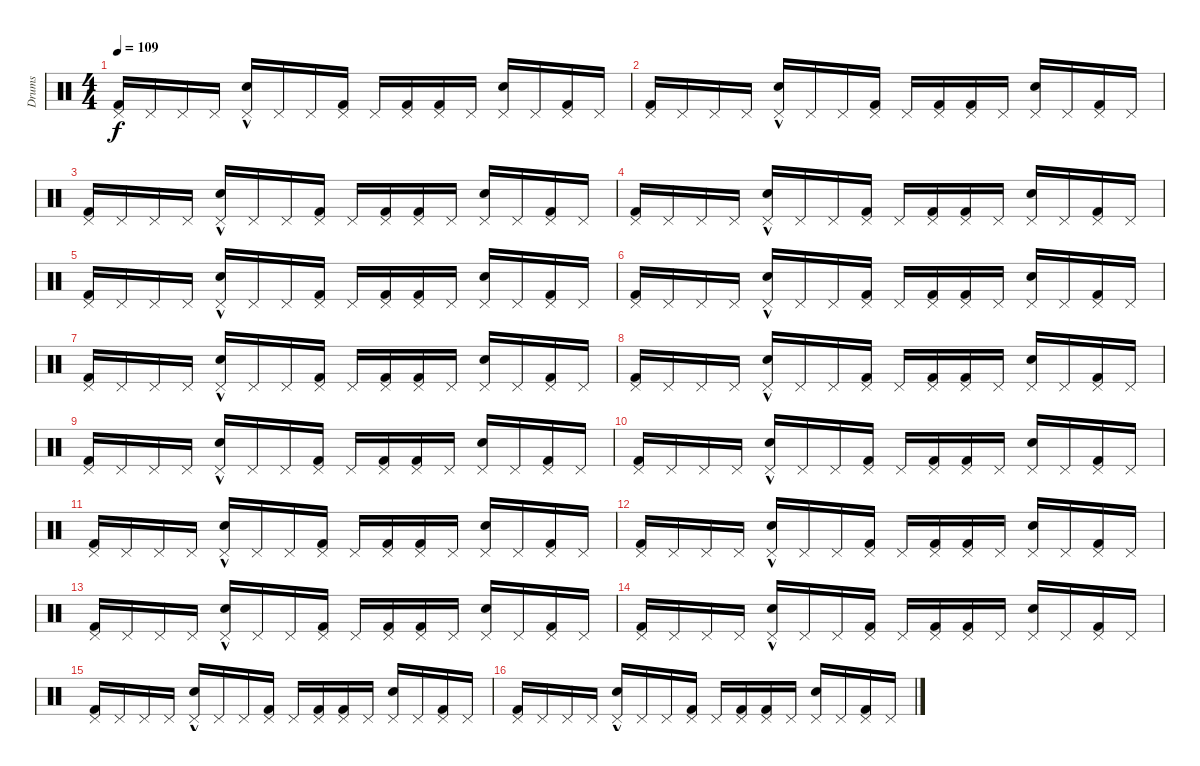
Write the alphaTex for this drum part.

\track ("Drums" "Drums") {instrument percussion}
\staff {score}
\articulation defaults
\ts (4 4)
\tempo 109
\clef neutral
\ks c
("Pedal Hi-Hat (hit)" "Kick (hit) 2").16{dy f} "Pedal Hi-Hat (hit)".16 "Pedal Hi-Hat (hit)".16 "Pedal Hi-Hat (hit)".16 ("Pedal Hi-Hat (hit)" "Snare (hit) 2"{hac}).16 "Pedal Hi-Hat (hit)".16 "Pedal Hi-Hat (hit)".16 ("Pedal Hi-Hat (hit)" "Kick (hit) 2").16 "Pedal Hi-Hat (hit)".16 ("Pedal Hi-Hat (hit)" "Kick (hit) 2").16 ("Pedal Hi-Hat (hit)" "Kick (hit) 2").16 "Pedal Hi-Hat (hit)".16 ("Pedal Hi-Hat (hit)" "Snare (hit) 2").16 "Pedal Hi-Hat (hit)".16 ("Pedal Hi-Hat (hit)" "Kick (hit) 2").16 "Pedal Hi-Hat (hit)".16 |
("Pedal Hi-Hat (hit)" "Kick (hit) 2").16 "Pedal Hi-Hat (hit)".16 "Pedal Hi-Hat (hit)".16 "Pedal Hi-Hat (hit)".16 ("Pedal Hi-Hat (hit)" "Snare (hit) 2"{hac}).16 "Pedal Hi-Hat (hit)".16 "Pedal Hi-Hat (hit)".16 ("Pedal Hi-Hat (hit)" "Kick (hit) 2").16 "Pedal Hi-Hat (hit)".16 ("Pedal Hi-Hat (hit)" "Kick (hit) 2").16 ("Pedal Hi-Hat (hit)" "Kick (hit) 2").16 "Pedal Hi-Hat (hit)".16 ("Pedal Hi-Hat (hit)" "Snare (hit) 2").16 "Pedal Hi-Hat (hit)".16 ("Pedal Hi-Hat (hit)" "Kick (hit) 2").16 "Pedal Hi-Hat (hit)".16 |
("Pedal Hi-Hat (hit)" "Kick (hit) 2").16 "Pedal Hi-Hat (hit)".16 "Pedal Hi-Hat (hit)".16 "Pedal Hi-Hat (hit)".16 ("Pedal Hi-Hat (hit)" "Snare (hit) 2"{hac}).16 "Pedal Hi-Hat (hit)".16 "Pedal Hi-Hat (hit)".16 ("Pedal Hi-Hat (hit)" "Kick (hit) 2").16 "Pedal Hi-Hat (hit)".16 ("Pedal Hi-Hat (hit)" "Kick (hit) 2").16 ("Pedal Hi-Hat (hit)" "Kick (hit) 2").16 "Pedal Hi-Hat (hit)".16 ("Pedal Hi-Hat (hit)" "Snare (hit) 2").16 "Pedal Hi-Hat (hit)".16 ("Pedal Hi-Hat (hit)" "Kick (hit) 2").16 "Pedal Hi-Hat (hit)".16 |
("Pedal Hi-Hat (hit)" "Kick (hit) 2").16 "Pedal Hi-Hat (hit)".16 "Pedal Hi-Hat (hit)".16 "Pedal Hi-Hat (hit)".16 ("Pedal Hi-Hat (hit)" "Snare (hit) 2"{hac}).16 "Pedal Hi-Hat (hit)".16 "Pedal Hi-Hat (hit)".16 ("Pedal Hi-Hat (hit)" "Kick (hit) 2").16 "Pedal Hi-Hat (hit)".16 ("Pedal Hi-Hat (hit)" "Kick (hit) 2").16 ("Pedal Hi-Hat (hit)" "Kick (hit) 2").16 "Pedal Hi-Hat (hit)".16 ("Pedal Hi-Hat (hit)" "Snare (hit) 2").16 "Pedal Hi-Hat (hit)".16 ("Pedal Hi-Hat (hit)" "Kick (hit) 2").16 "Pedal Hi-Hat (hit)".16 |
("Pedal Hi-Hat (hit)" "Kick (hit) 2").16 "Pedal Hi-Hat (hit)".16 "Pedal Hi-Hat (hit)".16 "Pedal Hi-Hat (hit)".16 ("Pedal Hi-Hat (hit)" "Snare (hit) 2"{hac}).16 "Pedal Hi-Hat (hit)".16 "Pedal Hi-Hat (hit)".16 ("Pedal Hi-Hat (hit)" "Kick (hit) 2").16 "Pedal Hi-Hat (hit)".16 ("Pedal Hi-Hat (hit)" "Kick (hit) 2").16 ("Pedal Hi-Hat (hit)" "Kick (hit) 2").16 "Pedal Hi-Hat (hit)".16 ("Pedal Hi-Hat (hit)" "Snare (hit) 2").16 "Pedal Hi-Hat (hit)".16 ("Pedal Hi-Hat (hit)" "Kick (hit) 2").16 "Pedal Hi-Hat (hit)".16 |
("Pedal Hi-Hat (hit)" "Kick (hit) 2").16 "Pedal Hi-Hat (hit)".16 "Pedal Hi-Hat (hit)".16 "Pedal Hi-Hat (hit)".16 ("Pedal Hi-Hat (hit)" "Snare (hit) 2"{hac}).16 "Pedal Hi-Hat (hit)".16 "Pedal Hi-Hat (hit)".16 ("Pedal Hi-Hat (hit)" "Kick (hit) 2").16 "Pedal Hi-Hat (hit)".16 ("Pedal Hi-Hat (hit)" "Kick (hit) 2").16 ("Pedal Hi-Hat (hit)" "Kick (hit) 2").16 "Pedal Hi-Hat (hit)".16 ("Pedal Hi-Hat (hit)" "Snare (hit) 2").16 "Pedal Hi-Hat (hit)".16 ("Pedal Hi-Hat (hit)" "Kick (hit) 2").16 "Pedal Hi-Hat (hit)".16 |
("Pedal Hi-Hat (hit)" "Kick (hit) 2").16 "Pedal Hi-Hat (hit)".16 "Pedal Hi-Hat (hit)".16 "Pedal Hi-Hat (hit)".16 ("Pedal Hi-Hat (hit)" "Snare (hit) 2"{hac}).16 "Pedal Hi-Hat (hit)".16 "Pedal Hi-Hat (hit)".16 ("Pedal Hi-Hat (hit)" "Kick (hit) 2").16 "Pedal Hi-Hat (hit)".16 ("Pedal Hi-Hat (hit)" "Kick (hit) 2").16 ("Pedal Hi-Hat (hit)" "Kick (hit) 2").16 "Pedal Hi-Hat (hit)".16 ("Pedal Hi-Hat (hit)" "Snare (hit) 2").16 "Pedal Hi-Hat (hit)".16 ("Pedal Hi-Hat (hit)" "Kick (hit) 2").16 "Pedal Hi-Hat (hit)".16 |
("Pedal Hi-Hat (hit)" "Kick (hit) 2").16 "Pedal Hi-Hat (hit)".16 "Pedal Hi-Hat (hit)".16 "Pedal Hi-Hat (hit)".16 ("Pedal Hi-Hat (hit)" "Snare (hit) 2"{hac}).16 "Pedal Hi-Hat (hit)".16 "Pedal Hi-Hat (hit)".16 ("Pedal Hi-Hat (hit)" "Kick (hit) 2").16 "Pedal Hi-Hat (hit)".16 ("Pedal Hi-Hat (hit)" "Kick (hit) 2").16 ("Pedal Hi-Hat (hit)" "Kick (hit) 2").16 "Pedal Hi-Hat (hit)".16 ("Pedal Hi-Hat (hit)" "Snare (hit) 2").16 "Pedal Hi-Hat (hit)".16 ("Pedal Hi-Hat (hit)" "Kick (hit) 2").16 "Pedal Hi-Hat (hit)".16 |
("Pedal Hi-Hat (hit)" "Kick (hit) 2").16 "Pedal Hi-Hat (hit)".16 "Pedal Hi-Hat (hit)".16 "Pedal Hi-Hat (hit)".16 ("Pedal Hi-Hat (hit)" "Snare (hit) 2"{hac}).16 "Pedal Hi-Hat (hit)".16 "Pedal Hi-Hat (hit)".16 ("Pedal Hi-Hat (hit)" "Kick (hit) 2").16 "Pedal Hi-Hat (hit)".16 ("Pedal Hi-Hat (hit)" "Kick (hit) 2").16 ("Pedal Hi-Hat (hit)" "Kick (hit) 2").16 "Pedal Hi-Hat (hit)".16 ("Pedal Hi-Hat (hit)" "Snare (hit) 2").16 "Pedal Hi-Hat (hit)".16 ("Pedal Hi-Hat (hit)" "Kick (hit) 2").16 "Pedal Hi-Hat (hit)".16 |
("Pedal Hi-Hat (hit)" "Kick (hit) 2").16 "Pedal Hi-Hat (hit)".16 "Pedal Hi-Hat (hit)".16 "Pedal Hi-Hat (hit)".16 ("Pedal Hi-Hat (hit)" "Snare (hit) 2"{hac}).16 "Pedal Hi-Hat (hit)".16 "Pedal Hi-Hat (hit)".16 ("Pedal Hi-Hat (hit)" "Kick (hit) 2").16 "Pedal Hi-Hat (hit)".16 ("Pedal Hi-Hat (hit)" "Kick (hit) 2").16 ("Pedal Hi-Hat (hit)" "Kick (hit) 2").16 "Pedal Hi-Hat (hit)".16 ("Pedal Hi-Hat (hit)" "Snare (hit) 2").16 "Pedal Hi-Hat (hit)".16 ("Pedal Hi-Hat (hit)" "Kick (hit) 2").16 "Pedal Hi-Hat (hit)".16 |
("Pedal Hi-Hat (hit)" "Kick (hit) 2").16 "Pedal Hi-Hat (hit)".16 "Pedal Hi-Hat (hit)".16 "Pedal Hi-Hat (hit)".16 ("Pedal Hi-Hat (hit)" "Snare (hit) 2"{hac}).16 "Pedal Hi-Hat (hit)".16 "Pedal Hi-Hat (hit)".16 ("Pedal Hi-Hat (hit)" "Kick (hit) 2").16 "Pedal Hi-Hat (hit)".16 ("Pedal Hi-Hat (hit)" "Kick (hit) 2").16 ("Pedal Hi-Hat (hit)" "Kick (hit) 2").16 "Pedal Hi-Hat (hit)".16 ("Pedal Hi-Hat (hit)" "Snare (hit) 2").16 "Pedal Hi-Hat (hit)".16 ("Pedal Hi-Hat (hit)" "Kick (hit) 2").16 "Pedal Hi-Hat (hit)".16 |
("Pedal Hi-Hat (hit)" "Kick (hit) 2").16 "Pedal Hi-Hat (hit)".16 "Pedal Hi-Hat (hit)".16 "Pedal Hi-Hat (hit)".16 ("Pedal Hi-Hat (hit)" "Snare (hit) 2"{hac}).16 "Pedal Hi-Hat (hit)".16 "Pedal Hi-Hat (hit)".16 ("Pedal Hi-Hat (hit)" "Kick (hit) 2").16 "Pedal Hi-Hat (hit)".16 ("Pedal Hi-Hat (hit)" "Kick (hit) 2").16 ("Pedal Hi-Hat (hit)" "Kick (hit) 2").16 "Pedal Hi-Hat (hit)".16 ("Pedal Hi-Hat (hit)" "Snare (hit) 2").16 "Pedal Hi-Hat (hit)".16 ("Pedal Hi-Hat (hit)" "Kick (hit) 2").16 "Pedal Hi-Hat (hit)".16 |
("Pedal Hi-Hat (hit)" "Kick (hit) 2").16 "Pedal Hi-Hat (hit)".16 "Pedal Hi-Hat (hit)".16 "Pedal Hi-Hat (hit)".16 ("Pedal Hi-Hat (hit)" "Snare (hit) 2"{hac}).16 "Pedal Hi-Hat (hit)".16 "Pedal Hi-Hat (hit)".16 ("Pedal Hi-Hat (hit)" "Kick (hit) 2").16 "Pedal Hi-Hat (hit)".16 ("Pedal Hi-Hat (hit)" "Kick (hit) 2").16 ("Pedal Hi-Hat (hit)" "Kick (hit) 2").16 "Pedal Hi-Hat (hit)".16 ("Pedal Hi-Hat (hit)" "Snare (hit) 2").16 "Pedal Hi-Hat (hit)".16 ("Pedal Hi-Hat (hit)" "Kick (hit) 2").16 "Pedal Hi-Hat (hit)".16 |
("Pedal Hi-Hat (hit)" "Kick (hit) 2").16 "Pedal Hi-Hat (hit)".16 "Pedal Hi-Hat (hit)".16 "Pedal Hi-Hat (hit)".16 ("Pedal Hi-Hat (hit)" "Snare (hit) 2"{hac}).16 "Pedal Hi-Hat (hit)".16 "Pedal Hi-Hat (hit)".16 ("Pedal Hi-Hat (hit)" "Kick (hit) 2").16 "Pedal Hi-Hat (hit)".16 ("Pedal Hi-Hat (hit)" "Kick (hit) 2").16 ("Pedal Hi-Hat (hit)" "Kick (hit) 2").16 "Pedal Hi-Hat (hit)".16 ("Pedal Hi-Hat (hit)" "Snare (hit) 2").16 "Pedal Hi-Hat (hit)".16 ("Pedal Hi-Hat (hit)" "Kick (hit) 2").16 "Pedal Hi-Hat (hit)".16 |
("Pedal Hi-Hat (hit)" "Kick (hit) 2").16 "Pedal Hi-Hat (hit)".16 "Pedal Hi-Hat (hit)".16 "Pedal Hi-Hat (hit)".16 ("Pedal Hi-Hat (hit)" "Snare (hit) 2"{hac}).16 "Pedal Hi-Hat (hit)".16 "Pedal Hi-Hat (hit)".16 ("Pedal Hi-Hat (hit)" "Kick (hit) 2").16 "Pedal Hi-Hat (hit)".16 ("Pedal Hi-Hat (hit)" "Kick (hit) 2").16 ("Pedal Hi-Hat (hit)" "Kick (hit) 2").16 "Pedal Hi-Hat (hit)".16 ("Pedal Hi-Hat (hit)" "Snare (hit) 2").16 "Pedal Hi-Hat (hit)".16 ("Pedal Hi-Hat (hit)" "Kick (hit) 2").16 "Pedal Hi-Hat (hit)".16 |
("Pedal Hi-Hat (hit)" "Kick (hit) 2").16 "Pedal Hi-Hat (hit)".16 "Pedal Hi-Hat (hit)".16 "Pedal Hi-Hat (hit)".16 ("Pedal Hi-Hat (hit)" "Snare (hit) 2"{hac}).16 "Pedal Hi-Hat (hit)".16 "Pedal Hi-Hat (hit)".16 ("Pedal Hi-Hat (hit)" "Kick (hit) 2").16 "Pedal Hi-Hat (hit)".16 ("Pedal Hi-Hat (hit)" "Kick (hit) 2").16 ("Pedal Hi-Hat (hit)" "Kick (hit) 2").16 "Pedal Hi-Hat (hit)".16 ("Pedal Hi-Hat (hit)" "Snare (hit) 2").16 "Pedal Hi-Hat (hit)".16 ("Pedal Hi-Hat (hit)" "Kick (hit) 2").16 "Pedal Hi-Hat (hit)".16
